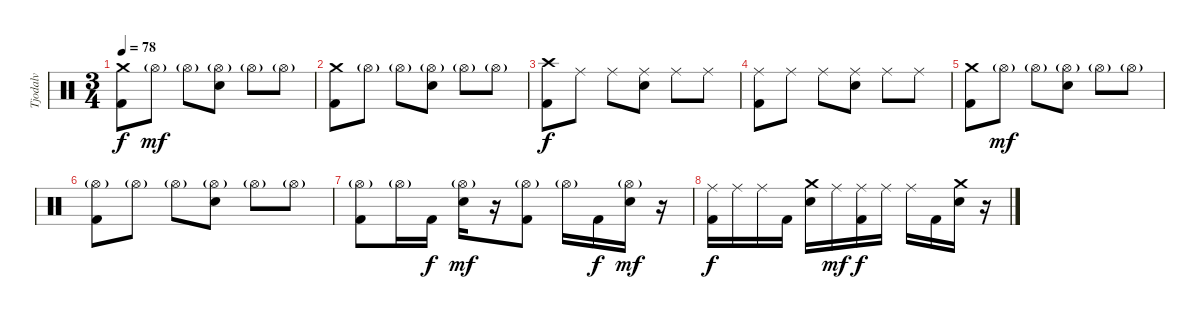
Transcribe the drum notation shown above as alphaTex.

\track ("Tjodalv" "Tjodalv") {instrument percussion}
\staff {score}
\articulation defaults
\ts (3 4)
\tempo 78
\clef neutral
\ks c
("Crash medium (hit)" "Kick (hit) 2").8{dy f volume 5} "Hi-Hat (open)"{g}.8{dy mf} "Hi-Hat (open)"{g}.8 ("Hi-Hat (open)"{g} "Electric Snare (hit)").8 "Hi-Hat (open)"{g}.8 "Hi-Hat (open)"{g}.8 |
("Crash medium (hit)" "Kick (hit) 2").8 "Hi-Hat (open)"{g}.8 "Hi-Hat (open)"{g}.8 ("Hi-Hat (open)"{g} "Electric Snare (hit)").8 "Hi-Hat (open)"{g}.8 "Hi-Hat (open)"{g}.8 |
("Crash high (hit)" "Kick (hit) 2").8{dy f} "Ride (middle)".8 "Ride (middle)".8 ("Ride (middle)" "Electric Snare (hit)").8 "Ride (middle)".8 "Ride (middle)".8 |
("Ride (middle)" "Kick (hit) 2").8 "Ride (middle)".8 "Ride (middle)".8 ("Ride (middle)" "Electric Snare (hit)").8 "Ride (middle)".8 "Ride (middle)".8 |
("Crash medium (hit)" "Kick (hit) 2").8{volume 0} "Hi-Hat (open)"{g}.8{dy mf} "Hi-Hat (open)"{g}.8 ("Hi-Hat (open)"{g} "Electric Snare (hit)").8 "Hi-Hat (open)"{g}.8 "Hi-Hat (open)"{g}.8 |
("Hi-Hat (open)"{g} "Kick (hit) 2").8 "Hi-Hat (open)"{g}.8 "Hi-Hat (open)"{g}.8 ("Hi-Hat (open)"{g} "Electric Snare (hit)").8 "Hi-Hat (open)"{g}.8 "Hi-Hat (open)"{g}.8 |
("Hi-Hat (open)"{g} "Kick (hit) 2").8 "Hi-Hat (open)"{g}.16 "Kick (hit) 2".16{dy f} ("Hi-Hat (open)"{g} "Electric Snare (hit)").16{dy mf} r.16 ("Hi-Hat (open)"{g} "Kick (hit) 2").8 "Hi-Hat (open)"{g}.16 "Kick (hit) 2".16{dy f} ("Hi-Hat (open)"{g} "Electric Snare (hit)").16{dy mf} r.16 |
("Ride (middle)" "Kick (hit) 2").16{dy f} "Ride (middle)".16 "Ride (middle)".16 "Kick (hit) 2".16 ("Crash medium (hit)" "Electric Snare (hit)").16 "Ride (middle)".16{dy mf} ("Ride (middle)" "Kick (hit) 2").16{dy f} "Ride (middle)".16 "Ride (middle)".16 "Kick (hit) 2".16 ("Crash medium (hit)" "Electric Snare (hit)").16 r.16
